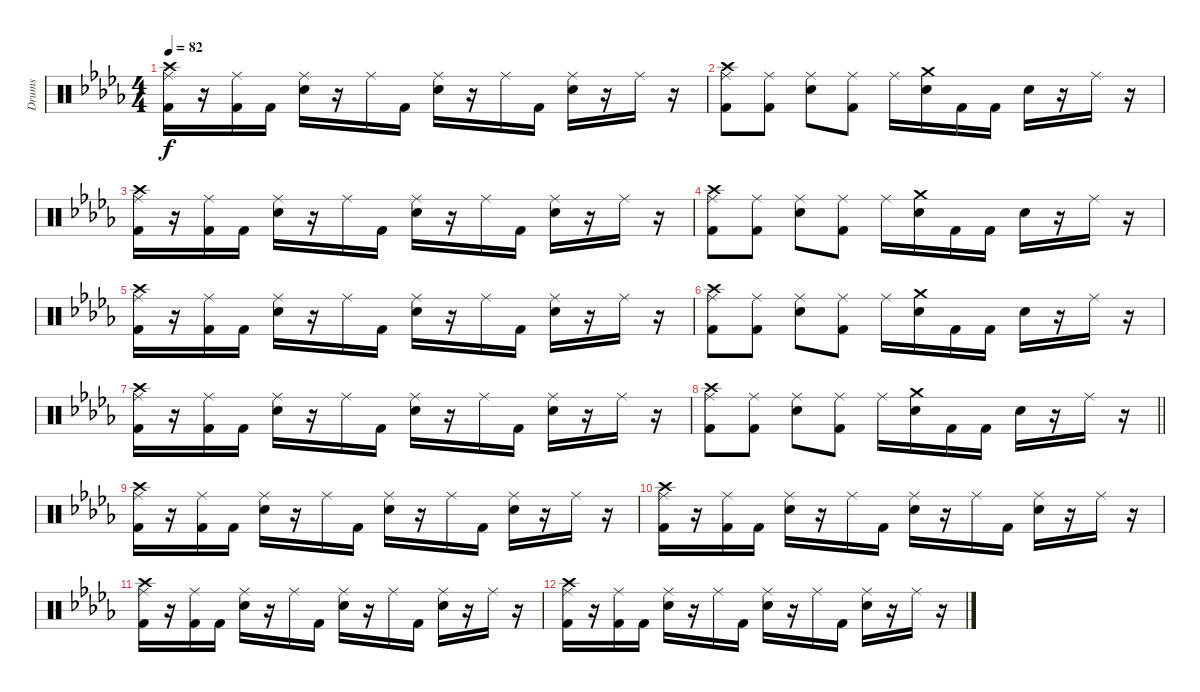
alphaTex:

\track ("Drums" "Drums") {instrument percussion}
\staff {score}
\articulation defaults
\ts (4 4)
\section ("" "")
\tempo 82
\clef neutral
\ks db
("Crash high (hit)" "Ride (middle)" "Kick (hit) 2").16{dy f} r.16 ("Ride (middle)" "Kick (hit) 2").16 "Kick (hit) 2".16 ("Ride (middle)" "Electric Snare (hit)").16 r.16 "Ride (middle)".16 "Kick (hit) 2".16 ("Ride (middle)" "Electric Snare (hit)").16 r.16 "Ride (middle)".16 "Kick (hit) 2".16 ("Ride (middle)" "Electric Snare (hit)").16 r.16 "Ride (middle)".16 r.16 |
("Crash high (hit)" "Ride (middle)" "Kick (hit) 2").8 ("Ride (middle)" "Kick (hit) 2").8 ("Ride (middle)" "Electric Snare (hit)").8 ("Ride (middle)" "Kick (hit) 2").8 "Ride (middle)".16 ("Crash medium (hit)" "Electric Snare (hit)").16 "Kick (hit) 2".16 "Kick (hit) 2".16 "Electric Snare (hit)".16 r.16 "Ride (middle)".16 r.16 |
("Crash high (hit)" "Ride (middle)" "Kick (hit) 2").16 r.16 ("Ride (middle)" "Kick (hit) 2").16 "Kick (hit) 2".16 ("Ride (middle)" "Electric Snare (hit)").16 r.16 "Ride (middle)".16 "Kick (hit) 2".16 ("Ride (middle)" "Electric Snare (hit)").16 r.16 "Ride (middle)".16 "Kick (hit) 2".16 ("Ride (middle)" "Electric Snare (hit)").16 r.16 "Ride (middle)".16 r.16 |
("Crash high (hit)" "Ride (middle)" "Kick (hit) 2").8 ("Ride (middle)" "Kick (hit) 2").8 ("Ride (middle)" "Electric Snare (hit)").8 ("Ride (middle)" "Kick (hit) 2").8 "Ride (middle)".16 ("Crash medium (hit)" "Electric Snare (hit)").16 "Kick (hit) 2".16 "Kick (hit) 2".16 "Electric Snare (hit)".16 r.16 "Ride (middle)".16 r.16 |
("Crash high (hit)" "Ride (middle)" "Kick (hit) 2").16 r.16 ("Ride (middle)" "Kick (hit) 2").16 "Kick (hit) 2".16 ("Ride (middle)" "Electric Snare (hit)").16 r.16 "Ride (middle)".16 "Kick (hit) 2".16 ("Ride (middle)" "Electric Snare (hit)").16 r.16 "Ride (middle)".16 "Kick (hit) 2".16 ("Ride (middle)" "Electric Snare (hit)").16 r.16 "Ride (middle)".16 r.16 |
("Crash high (hit)" "Ride (middle)" "Kick (hit) 2").8 ("Ride (middle)" "Kick (hit) 2").8 ("Ride (middle)" "Electric Snare (hit)").8 ("Ride (middle)" "Kick (hit) 2").8 "Ride (middle)".16 ("Crash medium (hit)" "Electric Snare (hit)").16 "Kick (hit) 2".16 "Kick (hit) 2".16 "Electric Snare (hit)".16 r.16 "Ride (middle)".16 r.16 |
("Crash high (hit)" "Ride (middle)" "Kick (hit) 2").16 r.16 ("Ride (middle)" "Kick (hit) 2").16 "Kick (hit) 2".16 ("Ride (middle)" "Electric Snare (hit)").16 r.16 "Ride (middle)".16 "Kick (hit) 2".16 ("Ride (middle)" "Electric Snare (hit)").16 r.16 "Ride (middle)".16 "Kick (hit) 2".16 ("Ride (middle)" "Electric Snare (hit)").16 r.16 "Ride (middle)".16 r.16 |
\barLineRight lightlight
("Crash high (hit)" "Ride (middle)" "Kick (hit) 2").8 ("Ride (middle)" "Kick (hit) 2").8 ("Ride (middle)" "Electric Snare (hit)").8 ("Ride (middle)" "Kick (hit) 2").8 "Ride (middle)".16 ("Crash medium (hit)" "Electric Snare (hit)").16 "Kick (hit) 2".16 "Kick (hit) 2".16 "Electric Snare (hit)".16 r.16 "Ride (middle)".16 r.16 |
("Crash high (hit)" "Ride (middle)" "Kick (hit) 2").16 r.16 ("Ride (middle)" "Kick (hit) 2").16 "Kick (hit) 2".16 ("Ride (middle)" "Electric Snare (hit)").16 r.16 "Ride (middle)".16 "Kick (hit) 2".16 ("Ride (middle)" "Electric Snare (hit)").16 r.16 "Ride (middle)".16 "Kick (hit) 2".16 ("Ride (middle)" "Electric Snare (hit)").16 r.16 "Ride (middle)".16 r.16 |
("Crash high (hit)" "Ride (middle)" "Kick (hit) 2").16 r.16 ("Ride (middle)" "Kick (hit) 2").16 "Kick (hit) 2".16 ("Ride (middle)" "Electric Snare (hit)").16 r.16 "Ride (middle)".16 "Kick (hit) 2".16 ("Ride (middle)" "Electric Snare (hit)").16 r.16 "Ride (middle)".16 "Kick (hit) 2".16 ("Ride (middle)" "Electric Snare (hit)").16 r.16 "Ride (middle)".16 r.16 |
("Crash high (hit)" "Ride (middle)" "Kick (hit) 2").16 r.16 ("Ride (middle)" "Kick (hit) 2").16 "Kick (hit) 2".16 ("Ride (middle)" "Electric Snare (hit)").16 r.16 "Ride (middle)".16 "Kick (hit) 2".16 ("Ride (middle)" "Electric Snare (hit)").16 r.16 "Ride (middle)".16 "Kick (hit) 2".16 ("Ride (middle)" "Electric Snare (hit)").16 r.16 "Ride (middle)".16 r.16 |
("Crash high (hit)" "Ride (middle)" "Kick (hit) 2").16 r.16 ("Ride (middle)" "Kick (hit) 2").16 "Kick (hit) 2".16 ("Ride (middle)" "Electric Snare (hit)").16 r.16 "Ride (middle)".16 "Kick (hit) 2".16 ("Ride (middle)" "Electric Snare (hit)").16 r.16 "Ride (middle)".16 "Kick (hit) 2".16 ("Ride (middle)" "Electric Snare (hit)").16 r.16 "Ride (middle)".16 r.16
